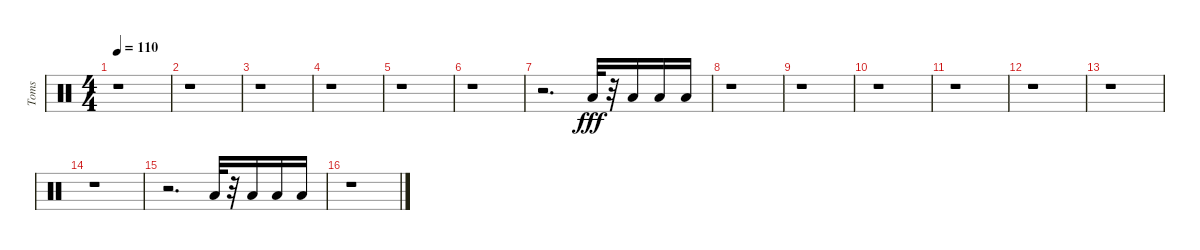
\track ("Toms" "Toms") {instrument percussion}
\staff {score}
\articulation defaults
\ts (4 4)
\tempo 110
\clef neutral
\ks c
r.1{dy fff} |
r.1 |
r.1 |
r.1 |
r.1 |
r.1 |
r.2{d} "Low Tom (hit)".32 r.32 "Low Tom (hit)".16 "Low Floor Tom (hit)".16 "Low Floor Tom (hit)".16 |
r.1 |
r.1 |
r.1 |
r.1 |
r.1 |
r.1 |
r.1 |
r.2{d} "Low Tom (hit)".32 r.32 "Low Tom (hit)".16 "Low Floor Tom (hit)".16 "Low Floor Tom (hit)".16 |
r.1
